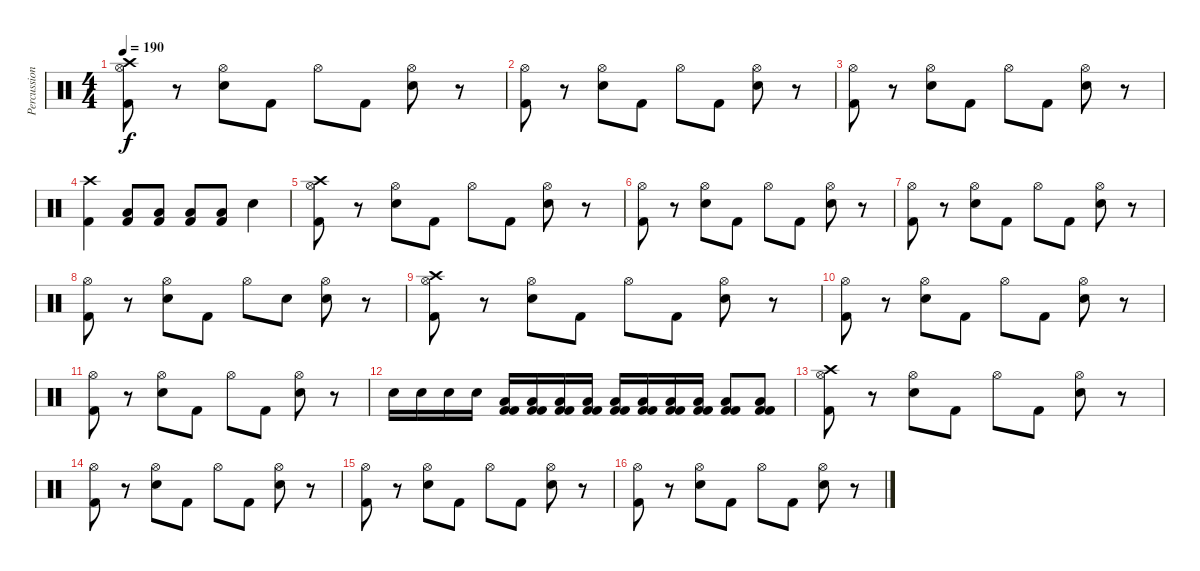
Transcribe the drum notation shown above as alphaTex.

\track ("Percussioni" "Percussion") {instrument percussion}
\staff {score}
\articulation defaults
\ts (4 4)
\tempo 190
\clef neutral
\ks c
("Hi-Hat (open)" "Crash high (hit)" "Kick (hit) 2").8{dy f} r.8 ("Hi-Hat (open)" "Snare (hit) 2").8 "Kick (hit) 2".8 "Hi-Hat (open)".8 "Kick (hit) 2".8 ("Hi-Hat (open)" "Snare (hit) 2").8 r.8 |
("Hi-Hat (open)" "Kick (hit) 2").8 r.8 ("Hi-Hat (open)" "Snare (hit) 2").8 "Kick (hit) 2".8 "Hi-Hat (open)".8 "Kick (hit) 2".8 ("Hi-Hat (open)" "Snare (hit) 2").8 r.8 |
("Hi-Hat (open)" "Kick (hit) 2").8 r.8 ("Hi-Hat (open)" "Snare (hit) 2").8 "Kick (hit) 2".8 "Hi-Hat (open)".8 "Kick (hit) 2".8 ("Hi-Hat (open)" "Snare (hit) 2").8 r.8 |
("Crash high (hit)" "Kick (hit) 2").4 ("Kick (hit) 2" "Low Tom (hit)").8 ("Kick (hit) 2" "Low Tom (hit)").8 ("Kick (hit) 2" "Low Tom (hit)").8 ("Kick (hit) 2" "Low Tom (hit)").8 "Snare (hit) 2".4 |
("Hi-Hat (open)" "Crash high (hit)" "Kick (hit) 2").8 r.8 ("Hi-Hat (open)" "Snare (hit) 2").8 "Kick (hit) 2".8 "Hi-Hat (open)".8 "Kick (hit) 2".8 ("Hi-Hat (open)" "Snare (hit) 2").8 r.8 |
("Hi-Hat (open)" "Kick (hit) 2").8 r.8 ("Hi-Hat (open)" "Snare (hit) 2").8 "Kick (hit) 2".8 "Hi-Hat (open)".8 "Kick (hit) 2".8 ("Hi-Hat (open)" "Snare (hit) 2").8 r.8 |
("Hi-Hat (open)" "Kick (hit) 2").8 r.8 ("Hi-Hat (open)" "Snare (hit) 2").8 "Kick (hit) 2".8 "Hi-Hat (open)".8 "Kick (hit) 2".8 ("Hi-Hat (open)" "Snare (hit) 2").8 r.8 |
("Hi-Hat (open)" "Kick (hit) 2").8 r.8 ("Hi-Hat (open)" "Snare (hit) 2").8 "Kick (hit) 2".8 "Hi-Hat (open)".8 "Snare (hit) 2".8 ("Hi-Hat (open)" "Snare (hit) 2").8 r.8 |
("Hi-Hat (open)" "Crash high (hit)" "Kick (hit) 2").8 r.8 ("Hi-Hat (open)" "Snare (hit) 2").8 "Kick (hit) 2".8 "Hi-Hat (open)".8 "Kick (hit) 2".8 ("Hi-Hat (open)" "Snare (hit) 2").8 r.8 |
("Hi-Hat (open)" "Kick (hit) 2").8 r.8 ("Hi-Hat (open)" "Snare (hit) 2").8 "Kick (hit) 2".8 "Hi-Hat (open)".8 "Kick (hit) 2".8 ("Hi-Hat (open)" "Snare (hit) 2").8 r.8 |
("Hi-Hat (open)" "Kick (hit) 2").8 r.8 ("Hi-Hat (open)" "Snare (hit) 2").8 "Kick (hit) 2".8 "Hi-Hat (open)".8 "Kick (hit) 2".8 ("Hi-Hat (open)" "Snare (hit) 2").8 r.8 |
"Snare (hit) 2".16 "Snare (hit) 2".16 "Snare (hit) 2".16 "Snare (hit) 2".16 ("Low Tom (hit)" "Kick (hit) 2" "Kick (hit) 2").16 ("Low Tom (hit)" "Kick (hit) 2" "Kick (hit) 2").16 ("Low Tom (hit)" "Kick (hit) 2" "Kick (hit) 2").16 ("Low Tom (hit)" "Kick (hit) 2" "Kick (hit) 2").16 ("Low Tom (hit)" "Kick (hit) 2" "Kick (hit) 2").16 ("Low Tom (hit)" "Kick (hit) 2" "Kick (hit) 2").16 ("Low Tom (hit)" "Kick (hit) 2" "Kick (hit) 2").16 ("Low Tom (hit)" "Kick (hit) 2" "Kick (hit) 2").16 ("Low Tom (hit)" "Kick (hit) 2" "Kick (hit) 2").8 ("Low Tom (hit)" "Kick (hit) 2" "Kick (hit) 2").8 |
("Hi-Hat (open)" "Crash high (hit)" "Kick (hit) 2").8 r.8 ("Hi-Hat (open)" "Snare (hit) 2").8 "Kick (hit) 2".8 "Hi-Hat (open)".8 "Kick (hit) 2".8 ("Hi-Hat (open)" "Snare (hit) 2").8 r.8 |
("Hi-Hat (open)" "Kick (hit) 2").8 r.8 ("Hi-Hat (open)" "Snare (hit) 2").8 "Kick (hit) 2".8 "Hi-Hat (open)".8 "Kick (hit) 2".8 ("Hi-Hat (open)" "Snare (hit) 2").8 r.8 |
("Hi-Hat (open)" "Kick (hit) 2").8 r.8 ("Hi-Hat (open)" "Snare (hit) 2").8 "Kick (hit) 2".8 "Hi-Hat (open)".8 "Kick (hit) 2".8 ("Hi-Hat (open)" "Snare (hit) 2").8 r.8 |
("Hi-Hat (open)" "Kick (hit) 2").8 r.8 ("Hi-Hat (open)" "Snare (hit) 2").8 "Kick (hit) 2".8 "Hi-Hat (open)".8 "Kick (hit) 2".8 ("Hi-Hat (open)" "Snare (hit) 2").8 r.8
